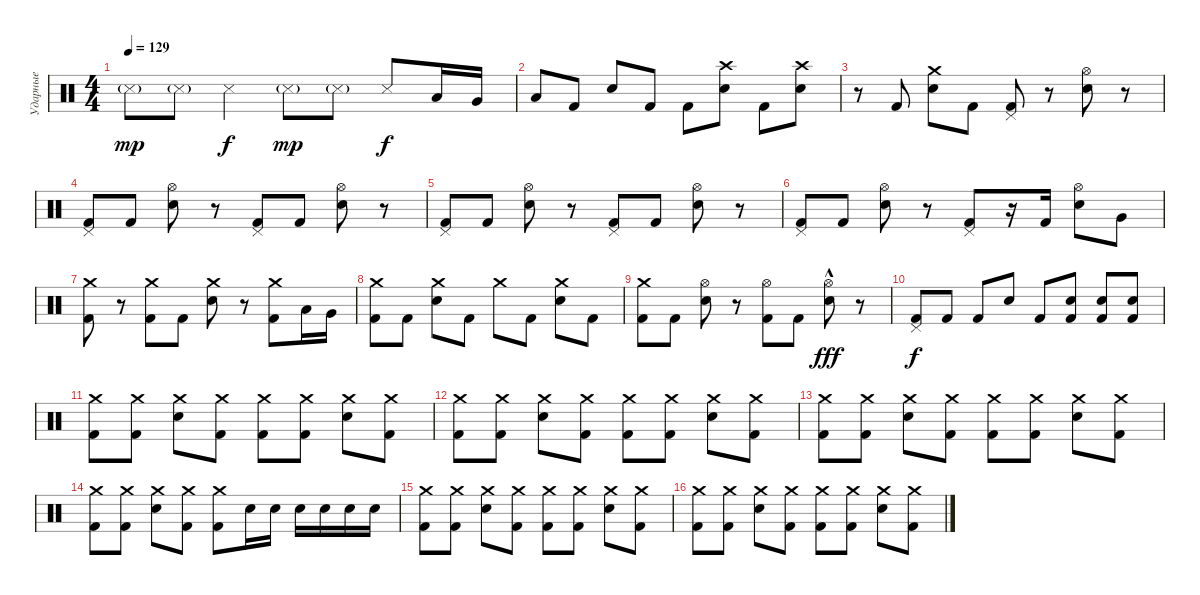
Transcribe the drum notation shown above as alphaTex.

\track ("Ударные" "Ударные") {instrument percussion}
\staff {score}
\articulation defaults
\ts (4 4)
\tempo 129
\clef neutral
\ks c "Snare (side stick) 3"{g}.8{dy mp} "Snare (side stick) 3"{g}.8 "Snare (side stick) 3".4{dy f} "Snare (side stick) 3"{g}.8{dy mp} "Snare (side stick) 3"{g}.8 "Snare (side stick) 3".8{dy f} "Low Tom (hit)".16 "Very Low Tom (hit)".16
|
"Low Floor Tom (hit)".8 "Kick (hit) 2".8 "Electric Snare (hit)".8 "Kick (hit) 2".8 "Kick (hit) 2".8 ("Crash high (hit)" "Electric Snare (hit)").8 "Kick (hit) 2".8 ("Crash high (hit)" "Electric Snare (hit)").8 |
r.8 "Kick (hit) 2".8 ("Crash medium (hit)" "Electric Snare (hit)").8 "Kick (hit) 2".8 ("Pedal Hi-Hat (hit)" "Kick (hit) 2").8 r.8 ("Hi-Hat (open)" "Electric Snare (hit)").8 r.8 |
("Pedal Hi-Hat (hit)" "Kick (hit) 2").8 "Kick (hit) 2".8 ("Hi-Hat (open)" "Electric Snare (hit)").8 r.8 ("Pedal Hi-Hat (hit)" "Kick (hit) 2").8 "Kick (hit) 2".8 ("Hi-Hat (open)" "Electric Snare (hit)").8 r.8 |
("Pedal Hi-Hat (hit)" "Kick (hit) 2").8 "Kick (hit) 2".8 ("Hi-Hat (open)" "Electric Snare (hit)").8 r.8 ("Pedal Hi-Hat (hit)" "Kick (hit) 2").8 "Kick (hit) 2".8 ("Hi-Hat (open)" "Electric Snare (hit)").8 r.8 |
("Pedal Hi-Hat (hit)" "Kick (hit) 2").8 "Kick (hit) 2".8 ("Hi-Hat (open)" "Electric Snare (hit)").8 r.8 ("Pedal Hi-Hat (hit)" "Kick (hit) 2").8 r.16 "Kick (hit) 2".16 ("Hi-Hat (open)" "Electric Snare (hit)").8 "Very Low Tom (hit)".8 |
("Crash medium (hit)" "Kick (hit) 2").8 r.8 ("Crash medium (hit)" "Kick (hit) 2").8 "Kick (hit) 2".8 ("Crash medium (hit)" "Electric Snare (hit)").8 r.8 ("Crash medium (hit)" "Kick (hit) 2").8 "Low Tom (hit)".16 "Very Low Tom (hit)".16 |
("Crash medium (hit)" "Kick (hit) 2").8 "Kick (hit) 2".8 ("Crash medium (hit)" "Electric Snare (hit)").8 "Kick (hit) 2".8 "Crash medium (hit)".8 "Kick (hit) 2".8 ("Crash medium (hit)" "Electric Snare (hit)").8 "Kick (hit) 2".8 |
("Crash medium (hit)" "Kick (hit) 2").8 "Kick (hit) 2".8 ("Hi-Hat (open)" "Electric Snare (hit)").8 r.8 ("Hi-Hat (open)" "Kick (hit) 2").8 "Kick (hit) 2".8 ("Hi-Hat (open)" "Electric Snare (hit)"{hac}).8{dy fff} r.8 |
("Pedal Hi-Hat (hit)" "Kick (hit) 2").8{dy f} "Kick (hit) 2".8 "Kick (hit) 2".8 "Electric Snare (hit)".8 "Kick (hit) 2".8 ("Electric Snare (hit)" "Kick (hit) 2").8 ("Electric Snare (hit)" "Kick (hit) 2").8 ("Electric Snare (hit)" "Kick (hit) 2").8 |
("Crash medium (hit)" "Kick (hit) 2").8 ("Crash medium (hit)" "Kick (hit) 2").8 ("Crash medium (hit)" "Electric Snare (hit)").8 ("Crash medium (hit)" "Kick (hit) 2").8 ("Crash medium (hit)" "Kick (hit) 2").8 ("Crash medium (hit)" "Kick (hit) 2").8 ("Crash medium (hit)" "Electric Snare (hit)").8 ("Crash medium (hit)" "Kick (hit) 2").8 |
("Crash medium (hit)" "Kick (hit) 2").8 ("Crash medium (hit)" "Kick (hit) 2").8 ("Crash medium (hit)" "Electric Snare (hit)").8 ("Crash medium (hit)" "Kick (hit) 2").8 ("Crash medium (hit)" "Kick (hit) 2").8 ("Crash medium (hit)" "Kick (hit) 2").8 ("Crash medium (hit)" "Electric Snare (hit)").8 ("Crash medium (hit)" "Kick (hit) 2").8 |
("Crash medium (hit)" "Kick (hit) 2").8 ("Crash medium (hit)" "Kick (hit) 2").8 ("Crash medium (hit)" "Electric Snare (hit)").8 ("Crash medium (hit)" "Kick (hit) 2").8 ("Crash medium (hit)" "Kick (hit) 2").8 ("Crash medium (hit)" "Kick (hit) 2").8 ("Crash medium (hit)" "Electric Snare (hit)").8 ("Crash medium (hit)" "Kick (hit) 2").8 |
("Crash medium (hit)" "Kick (hit) 2").8 ("Crash medium (hit)" "Kick (hit) 2").8 ("Crash medium (hit)" "Electric Snare (hit)").8 ("Crash medium (hit)" "Kick (hit) 2").8 ("Crash medium (hit)" "Kick (hit) 2").8 "Electric Snare (hit)".16 "Electric Snare (hit)".16 "Electric Snare (hit)".16 "Electric Snare (hit)".16 "Electric Snare (hit)".16 "Electric Snare (hit)".16 |
("Crash medium (hit)" "Kick (hit) 2").8 ("Crash medium (hit)" "Kick (hit) 2").8 ("Crash medium (hit)" "Electric Snare (hit)").8 ("Crash medium (hit)" "Kick (hit) 2").8 ("Crash medium (hit)" "Kick (hit) 2").8 ("Crash medium (hit)" "Kick (hit) 2").8 ("Crash medium (hit)" "Electric Snare (hit)").8 ("Crash medium (hit)" "Kick (hit) 2").8 |
("Crash medium (hit)" "Kick (hit) 2").8 ("Crash medium (hit)" "Kick (hit) 2").8 ("Crash medium (hit)" "Electric Snare (hit)").8 ("Crash medium (hit)" "Kick (hit) 2").8 ("Crash medium (hit)" "Kick (hit) 2").8 ("Crash medium (hit)" "Kick (hit) 2").8 ("Crash medium (hit)" "Electric Snare (hit)").8 ("Crash medium (hit)" "Kick (hit) 2").8
